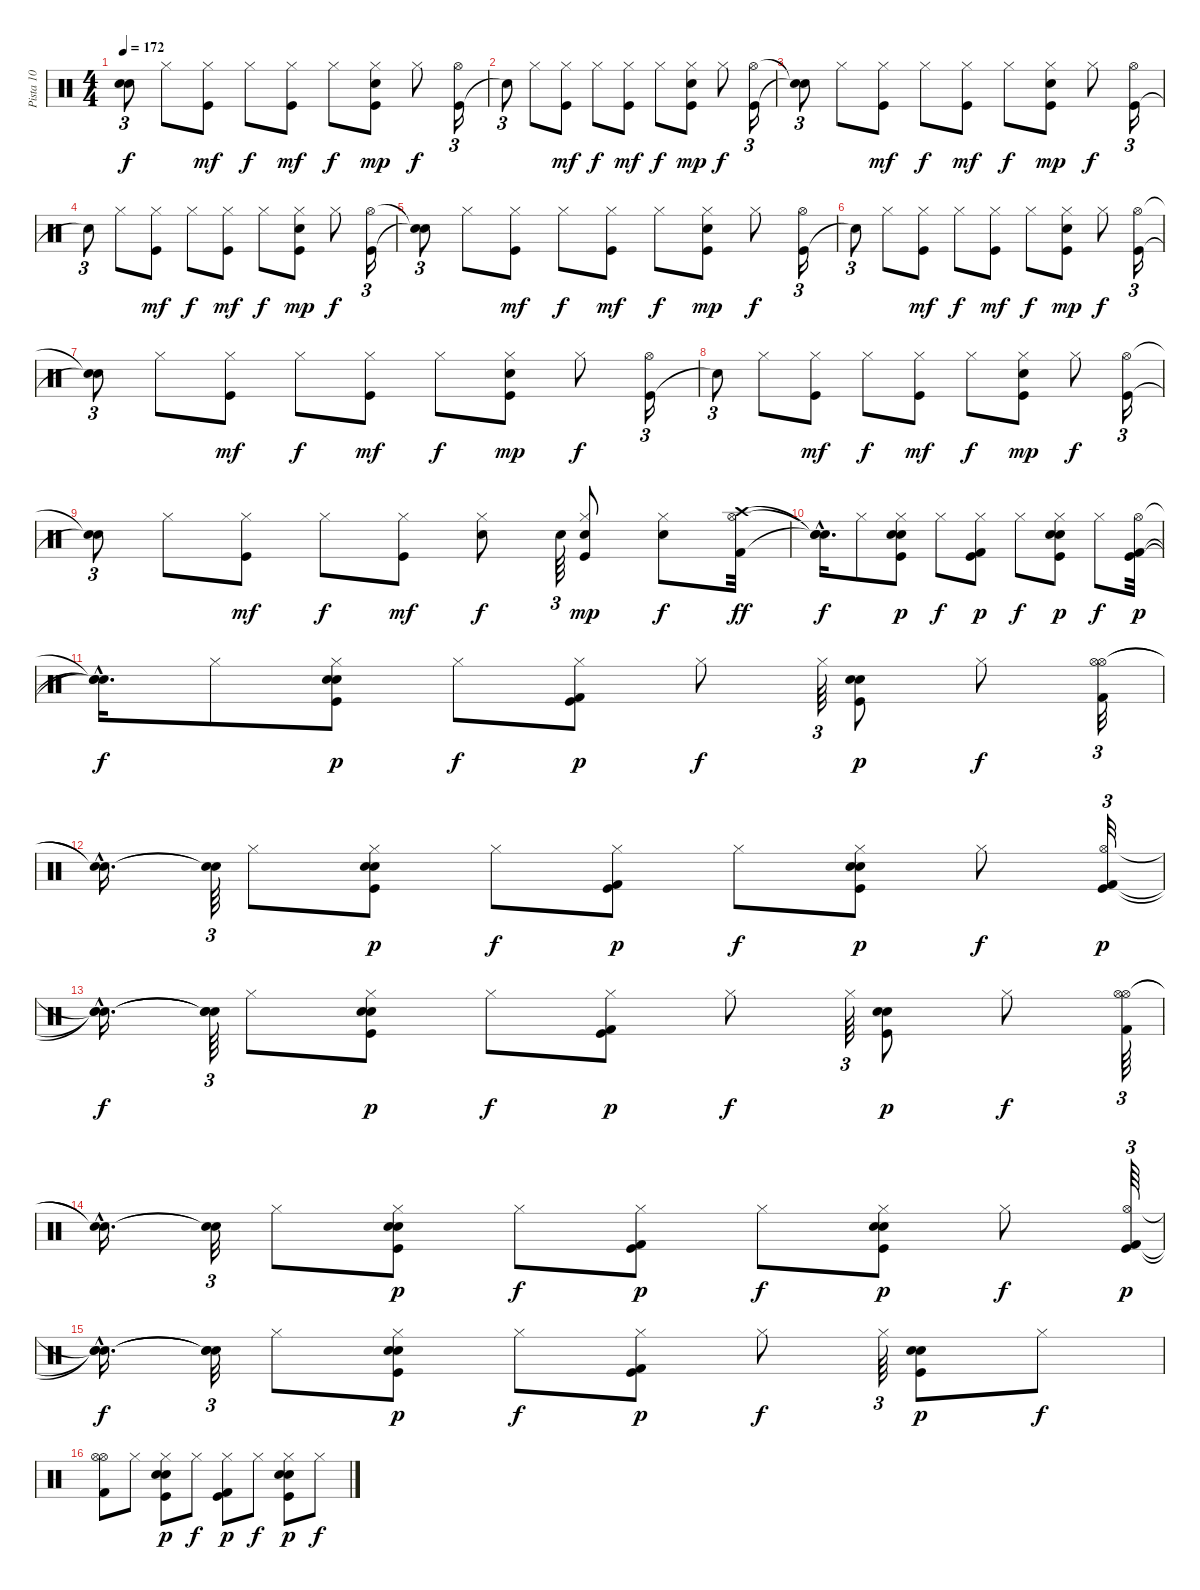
\track ("Pista 10" "Pista 10") {instrument percussion}
\staff {score}
\articulation defaults
\ts (4 4)
\tempo 172
\clef neutral
\ks c
("Snare (hit)"{t} "Snare (hit)"{t}).8{tu (3 2) dy f} "Hi-Hat (closed)".8 ("Kick (hit)" "Hi-Hat (closed)").8{dy mf} "Hi-Hat (closed)".8{dy f} ("Kick (hit)" "Hi-Hat (closed)").8{dy mf} "Hi-Hat (closed)".8{dy f} ("Snare (hit) 2" "Hi-Hat (closed)" "Kick (hit)").8{dy mp} "Hi-Hat (closed)".8{dy f} ("Kick (hit)" "Hi-Hat (open)").16{tu (3 2)} |
"Snare (hit)"{t}.8{tu (3 2)} "Hi-Hat (closed)".8 ("Hi-Hat (closed)" "Kick (hit)").8{dy mf} "Hi-Hat (closed)".8{dy f} ("Hi-Hat (closed)" "Kick (hit)").8{dy mf} "Hi-Hat (closed)".8{dy f} ("Hi-Hat (closed)" "Kick (hit)" "Snare (hit) 2").8{dy mp} "Hi-Hat (closed)".8{dy f} ("Hi-Hat (open)" "Kick (hit)").16{tu (3 2)} |
("Snare (hit)"{t} "Snare (hit)"{t}).8{tu (3 2)} "Hi-Hat (closed)".8 ("Kick (hit)" "Hi-Hat (closed)").8{dy mf} "Hi-Hat (closed)".8{dy f} ("Kick (hit)" "Hi-Hat (closed)").8{dy mf} "Hi-Hat (closed)".8{dy f} ("Snare (hit) 2" "Hi-Hat (closed)" "Kick (hit)").8{dy mp} "Hi-Hat (closed)".8{dy f} ("Kick (hit)" "Hi-Hat (open)").16{tu (3 2)} |
"Snare (hit)"{t}.8{tu (3 2)} "Hi-Hat (closed)".8 ("Hi-Hat (closed)" "Kick (hit)").8{dy mf} "Hi-Hat (closed)".8{dy f} ("Hi-Hat (closed)" "Kick (hit)").8{dy mf} "Hi-Hat (closed)".8{dy f} ("Hi-Hat (closed)" "Kick (hit)" "Snare (hit) 2").8{dy mp} "Hi-Hat (closed)".8{dy f} ("Hi-Hat (open)" "Kick (hit)").16{tu (3 2)} |
("Snare (hit)"{t} "Snare (hit)"{t}).8{tu (3 2)} "Hi-Hat (closed)".8 ("Kick (hit)" "Hi-Hat (closed)").8{dy mf} "Hi-Hat (closed)".8{dy f} ("Kick (hit)" "Hi-Hat (closed)").8{dy mf} "Hi-Hat (closed)".8{dy f} ("Snare (hit) 2" "Hi-Hat (closed)" "Kick (hit)").8{dy mp} "Hi-Hat (closed)".8{dy f} ("Kick (hit)" "Hi-Hat (open)").16{tu (3 2)} |
"Snare (hit)"{t}.8{tu (3 2)} "Hi-Hat (closed)".8 ("Hi-Hat (closed)" "Kick (hit)").8{dy mf} "Hi-Hat (closed)".8{dy f} ("Hi-Hat (closed)" "Kick (hit)").8{dy mf} "Hi-Hat (closed)".8{dy f} ("Hi-Hat (closed)" "Kick (hit)" "Snare (hit) 2").8{dy mp} "Hi-Hat (closed)".8{dy f} ("Hi-Hat (open)" "Kick (hit)").16{tu (3 2)} |
("Snare (hit)"{t} "Snare (hit)"{t}).8{tu (3 2)} "Hi-Hat (closed)".8 ("Kick (hit)" "Hi-Hat (closed)").8{dy mf} "Hi-Hat (closed)".8{dy f} ("Kick (hit)" "Hi-Hat (closed)").8{dy mf} "Hi-Hat (closed)".8{dy f} ("Snare (hit) 2" "Hi-Hat (closed)" "Kick (hit)").8{dy mp} "Hi-Hat (closed)".8{dy f} ("Kick (hit)" "Hi-Hat (open)").16{tu (3 2)} |
"Snare (hit)"{t}.8{tu (3 2)} "Hi-Hat (closed)".8 ("Hi-Hat (closed)" "Kick (hit)").8{dy mf} "Hi-Hat (closed)".8{dy f} ("Hi-Hat (closed)" "Kick (hit)").8{dy mf} "Hi-Hat (closed)".8{dy f} ("Hi-Hat (closed)" "Kick (hit)" "Snare (hit) 2").8{dy mp} "Hi-Hat (closed)".8{dy f} ("Hi-Hat (open)" "Kick (hit)").16{tu (3 2)} |
("Snare (hit)"{t} "Snare (hit)"{t}).8{tu (3 2)} "Hi-Hat (closed)".8 ("Kick (hit)" "Hi-Hat (closed)").8{dy mf} "Hi-Hat (closed)".8{dy f} ("Kick (hit)" "Hi-Hat (closed)").8{dy mf} ("Hi-Hat (closed)" "Snare (hit) 2").8{dy f} "Snare (hit) 2".64{tu (3 2)} ("Snare (hit) 2" "Hi-Hat (closed)" "Kick (hit)").8{dy mp} ("Snare (hit) 2" "Hi-Hat (closed)").8{dy f} ("Hi-Hat (open)" "Kick (hit) 2" "Crash high (hit)").32{dy ff} |
("Snare (hit)"{hac t} "Snare (hit)"{hac t} "Snare (hit)"{hac t}).16{d dy f} "Hi-Hat (closed)".8 ("Hi-Hat (closed)" "Electric Snare (hit)" "Snare (hit) 2" "Kick (hit)").8{dy p} "Hi-Hat (closed)".8{dy f} ("Kick (hit) 2" "Kick (hit)" "Hi-Hat (closed)").8{dy p} "Hi-Hat (closed)".8{dy f} ("Snare (hit) 2" "Electric Snare (hit)" "Kick (hit)" "Hi-Hat (closed)").8{dy p} "Hi-Hat (closed)".8{dy f} ("Hi-Hat (open)" "Kick (hit) 2" "Kick (hit)").32{dy p} |
("Snare (hit)"{hac t} "Snare (hit)"{hac t} "Snare (hit)"{hac t}).16{d dy f} "Hi-Hat (closed)".8 ("Hi-Hat (closed)" "Snare (hit) 2" "Electric Snare (hit)" "Kick (hit)").8{dy p} "Hi-Hat (closed)".8{dy f} ("Hi-Hat (closed)" "Kick (hit) 2" "Kick (hit)").8{dy p} "Hi-Hat (closed)".8{dy f} "Hi-Hat (closed)".64{tu (3 2)} ("Snare (hit) 2" "Electric Snare (hit)" "Kick (hit)").8{dy p} "Hi-Hat (closed)".8{dy f} ("Hi-Hat (open)" "Hi-Hat (open)" "Kick (hit) 2").32{tu (3 2)} |
("Snare (hit)"{hac t} "Snare (hit)"{hac t}).16{d} ("Snare (hit)"{t} "Snare (hit)"{t}).64{tu (3 2)} "Hi-Hat (closed)".8 ("Hi-Hat (closed)" "Electric Snare (hit)" "Snare (hit) 2" "Kick (hit)").8{dy p} "Hi-Hat (closed)".8{dy f} ("Kick (hit) 2" "Kick (hit)" "Hi-Hat (closed)").8{dy p} "Hi-Hat (closed)".8{dy f} ("Snare (hit) 2" "Electric Snare (hit)" "Kick (hit)" "Hi-Hat (closed)").8{dy p} "Hi-Hat (closed)".8{dy f} ("Hi-Hat (open)" "Kick (hit) 2" "Kick (hit)").32{tu (3 2) dy p} |
("Snare (hit)"{hac t} "Snare (hit)"{hac t} "Snare (hit)"{hac t}).16{d dy f} ("Snare (hit)"{t} "Snare (hit)"{t} "Snare (hit)"{t}).64{tu (3 2)} "Hi-Hat (closed)".8 ("Hi-Hat (closed)" "Snare (hit) 2" "Electric Snare (hit)" "Kick (hit)").8{dy p} "Hi-Hat (closed)".8{dy f} ("Hi-Hat (closed)" "Kick (hit) 2" "Kick (hit)").8{dy p} "Hi-Hat (closed)".8{dy f} "Hi-Hat (closed)".64{tu (3 2)} ("Snare (hit) 2" "Electric Snare (hit)" "Kick (hit)").8{dy p} "Hi-Hat (closed)".8{dy f} ("Hi-Hat (open)" "Hi-Hat (open)" "Kick (hit) 2").64{tu (3 2)} |
("Snare (hit)"{hac t} "Snare (hit)"{hac t}).16{d} ("Snare (hit)"{t} "Snare (hit)"{t}).32{tu (3 2)} "Hi-Hat (closed)".8 ("Hi-Hat (closed)" "Electric Snare (hit)" "Snare (hit) 2" "Kick (hit)").8{dy p} "Hi-Hat (closed)".8{dy f} ("Kick (hit) 2" "Kick (hit)" "Hi-Hat (closed)").8{dy p} "Hi-Hat (closed)".8{dy f} ("Snare (hit) 2" "Electric Snare (hit)" "Kick (hit)" "Hi-Hat (closed)").8{dy p} "Hi-Hat (closed)".8{dy f} ("Hi-Hat (open)" "Kick (hit) 2" "Kick (hit)").64{tu (3 2) dy p} |
("Snare (hit)"{hac t} "Snare (hit)"{hac t} "Snare (hit)"{hac t}).16{d dy f} ("Snare (hit)"{t} "Snare (hit)"{t} "Snare (hit)"{t}).32{tu (3 2)} "Hi-Hat (closed)".8 ("Hi-Hat (closed)" "Snare (hit) 2" "Electric Snare (hit)" "Kick (hit)").8{dy p} "Hi-Hat (closed)".8{dy f} ("Hi-Hat (closed)" "Kick (hit) 2" "Kick (hit)").8{dy p} "Hi-Hat (closed)".8{dy f} "Hi-Hat (closed)".64{tu (3 2)} ("Snare (hit) 2" "Electric Snare (hit)" "Kick (hit)").8{dy p} "Hi-Hat (closed)".8{dy f} |
("Hi-Hat (open)" "Hi-Hat (open)" "Kick (hit) 2").8 "Hi-Hat (closed)".8 ("Hi-Hat (closed)" "Electric Snare (hit)" "Snare (hit) 2" "Kick (hit)").8{dy p} "Hi-Hat (closed)".8{dy f} ("Kick (hit) 2" "Kick (hit)" "Hi-Hat (closed)").8{dy p} "Hi-Hat (closed)".8{dy f} ("Snare (hit) 2" "Electric Snare (hit)" "Kick (hit)" "Hi-Hat (closed)").8{dy p} "Hi-Hat (closed)".8{dy f}
